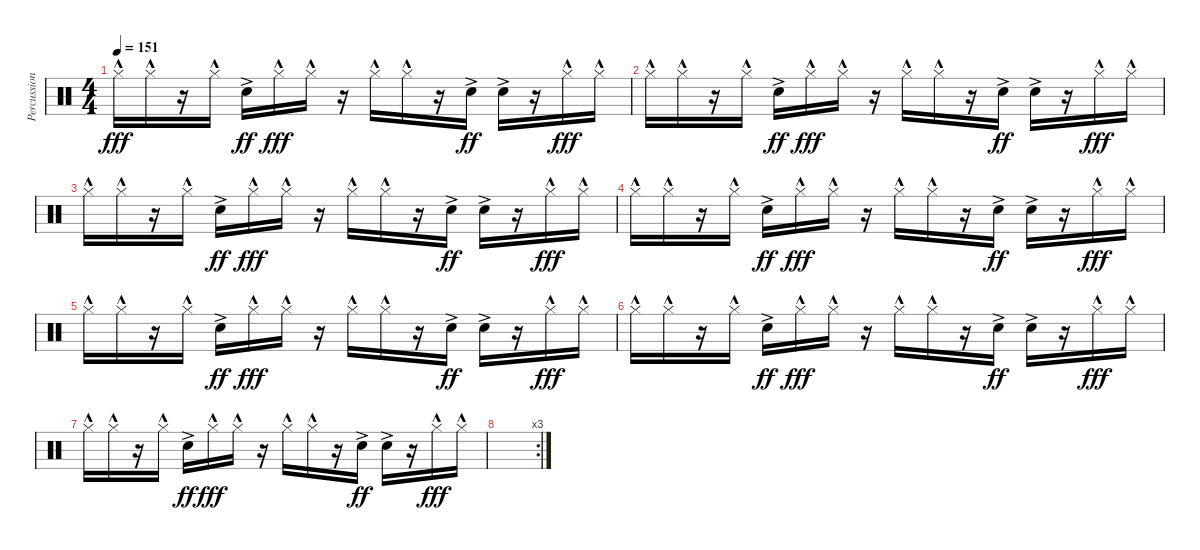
\track ("Percussion" "Percussion") {instrument percussion bank 255}
\staff {score}
\articulation defaults
\ts (4 4)
\tempo 151
\clef neutral
\ks c "Hi-Hat (closed)"{hac}.16{dy fff} "Hi-Hat (closed)"{hac}.16
r.16 "Hi-Hat (closed)"{hac}.16 "Snare (hit) 2"{ac}.16{dy ff} "Hi-Hat (closed)"{hac}.16{dy fff} "Hi-Hat (closed)"{hac}.16 r.16 "Hi-Hat (closed)"{hac}.16 "Hi-Hat (closed)"{hac}.16 r.16 "Snare (hit) 2"{ac}.16{dy ff} "Snare (hit) 2"{ac}.16 r.16 "Hi-Hat (closed)"{hac}.16{dy fff} "Hi-Hat (closed)"{hac}.16 |
"Hi-Hat (closed)"{hac}.16 "Hi-Hat (closed)"{hac}.16 r.16 "Hi-Hat (closed)"{hac}.16 "Snare (hit) 2"{ac}.16{dy ff} "Hi-Hat (closed)"{hac}.16{dy fff} "Hi-Hat (closed)"{hac}.16 r.16 "Hi-Hat (closed)"{hac}.16 "Hi-Hat (closed)"{hac}.16 r.16 "Snare (hit) 2"{ac}.16{dy ff} "Snare (hit) 2"{ac}.16 r.16 "Hi-Hat (closed)"{hac}.16{dy fff} "Hi-Hat (closed)"{hac}.16 |
"Hi-Hat (closed)"{hac}.16 "Hi-Hat (closed)"{hac}.16 r.16 "Hi-Hat (closed)"{hac}.16 "Snare (hit) 2"{ac}.16{dy ff} "Hi-Hat (closed)"{hac}.16{dy fff} "Hi-Hat (closed)"{hac}.16 r.16 "Hi-Hat (closed)"{hac}.16 "Hi-Hat (closed)"{hac}.16 r.16 "Snare (hit) 2"{ac}.16{dy ff} "Snare (hit) 2"{ac}.16 r.16 "Hi-Hat (closed)"{hac}.16{dy fff} "Hi-Hat (closed)"{hac}.16 |
"Hi-Hat (closed)"{hac}.16 "Hi-Hat (closed)"{hac}.16 r.16 "Hi-Hat (closed)"{hac}.16 "Snare (hit) 2"{ac}.16{dy ff} "Hi-Hat (closed)"{hac}.16{dy fff} "Hi-Hat (closed)"{hac}.16 r.16 "Hi-Hat (closed)"{hac}.16 "Hi-Hat (closed)"{hac}.16 r.16 "Snare (hit) 2"{ac}.16{dy ff} "Snare (hit) 2"{ac}.16 r.16 "Hi-Hat (closed)"{hac}.16{dy fff} "Hi-Hat (closed)"{hac}.16 |
"Hi-Hat (closed)"{hac}.16 "Hi-Hat (closed)"{hac}.16 r.16 "Hi-Hat (closed)"{hac}.16 "Snare (hit) 2"{ac}.16{dy ff} "Hi-Hat (closed)"{hac}.16{dy fff} "Hi-Hat (closed)"{hac}.16 r.16 "Hi-Hat (closed)"{hac}.16 "Hi-Hat (closed)"{hac}.16 r.16 "Snare (hit) 2"{ac}.16{dy ff} "Snare (hit) 2"{ac}.16 r.16 "Hi-Hat (closed)"{hac}.16{dy fff} "Hi-Hat (closed)"{hac}.16 |
"Hi-Hat (closed)"{hac}.16 "Hi-Hat (closed)"{hac}.16 r.16 "Hi-Hat (closed)"{hac}.16 "Snare (hit) 2"{ac}.16{dy ff} "Hi-Hat (closed)"{hac}.16{dy fff} "Hi-Hat (closed)"{hac}.16 r.16 "Hi-Hat (closed)"{hac}.16 "Hi-Hat (closed)"{hac}.16 r.16 "Snare (hit) 2"{ac}.16{dy ff} "Snare (hit) 2"{ac}.16 r.16 "Hi-Hat (closed)"{hac}.16{dy fff} "Hi-Hat (closed)"{hac}.16 |
"Hi-Hat (closed)"{hac}.16 "Hi-Hat (closed)"{hac}.16 r.16 "Hi-Hat (closed)"{hac}.16 "Snare (hit) 2"{ac}.16{dy ff} "Hi-Hat (closed)"{hac}.16{dy fff} "Hi-Hat (closed)"{hac}.16 r.16 "Hi-Hat (closed)"{hac}.16 "Hi-Hat (closed)"{hac}.16 r.16 "Snare (hit) 2"{ac}.16{dy ff} "Snare (hit) 2"{ac}.16 r.16 "Hi-Hat (closed)"{hac}.16{dy fff} "Hi-Hat (closed)"{hac}.16 |
\rc 3
